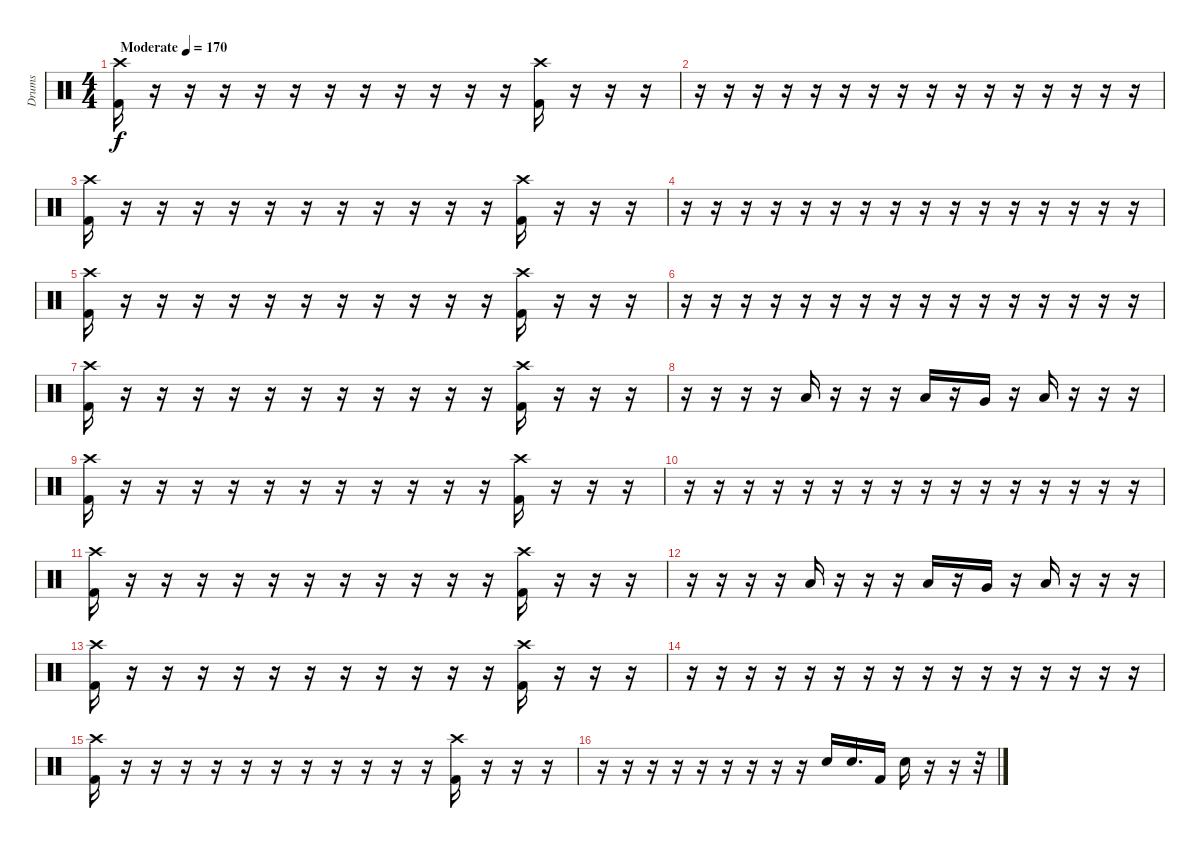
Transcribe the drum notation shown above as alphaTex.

\track ("Drums" "Drums") {instrument percussion}
\staff {score}
\articulation defaults
\ts (4 4)
\tempo (170 "Moderate")
\clef neutral
\ks c
("Crash high (hit)" "Kick (hit) 2").16{dy f} r.16 r.16 r.16 r.16 r.16 r.16 r.16 r.16 r.16 r.16 r.16 ("Crash high (hit)" "Kick (hit) 2").16 r.16 r.16 r.16 |
r.16 r.16 r.16 r.16 r.16 r.16 r.16 r.16 r.16 r.16 r.16 r.16 r.16 r.16 r.16 r.16 |
("Crash high (hit)" "Kick (hit) 2").16 r.16 r.16 r.16 r.16 r.16 r.16 r.16 r.16 r.16 r.16 r.16 ("Crash high (hit)" "Kick (hit) 2").16 r.16 r.16 r.16 |
r.16 r.16 r.16 r.16 r.16 r.16 r.16 r.16 r.16 r.16 r.16 r.16 r.16 r.16 r.16 r.16 |
("Crash high (hit)" "Kick (hit) 2").16 r.16 r.16 r.16 r.16 r.16 r.16 r.16 r.16 r.16 r.16 r.16 ("Crash high (hit)" "Kick (hit) 2").16 r.16 r.16 r.16 |
r.16 r.16 r.16 r.16 r.16 r.16 r.16 r.16 r.16 r.16 r.16 r.16 r.16 r.16 r.16 r.16 |
("Crash high (hit)" "Kick (hit) 2").16 r.16 r.16 r.16 r.16 r.16 r.16 r.16 r.16 r.16 r.16 r.16 ("Crash high (hit)" "Kick (hit) 2").16 r.16 r.16 r.16 |
r.16 r.16 r.16 r.16 "Low Tom (hit)".16 r.16 r.16 r.16 "Low Tom (hit)".16 r.16 "Very Low Tom (hit)".16 r.16 "Low Floor Tom (hit)".16 r.16 r.16 r.16 |
("Crash high (hit)" "Kick (hit) 2").16 r.16 r.16 r.16 r.16 r.16 r.16 r.16 r.16 r.16 r.16 r.16 ("Crash high (hit)" "Kick (hit) 2").16 r.16 r.16 r.16 |
r.16 r.16 r.16 r.16 r.16 r.16 r.16 r.16 r.16 r.16 r.16 r.16 r.16 r.16 r.16 r.16 |
("Crash high (hit)" "Kick (hit) 2").16 r.16 r.16 r.16 r.16 r.16 r.16 r.16 r.16 r.16 r.16 r.16 ("Crash high (hit)" "Kick (hit) 2").16 r.16 r.16 r.16 |
r.16 r.16 r.16 r.16 "Low Tom (hit)".16 r.16 r.16 r.16 "Low Tom (hit)".16 r.16 "Very Low Tom (hit)".16 r.16 "Low Floor Tom (hit)".16 r.16 r.16 r.16 |
("Crash high (hit)" "Kick (hit) 2").16 r.16 r.16 r.16 r.16 r.16 r.16 r.16 r.16 r.16 r.16 r.16 ("Crash high (hit)" "Kick (hit) 2").16 r.16 r.16 r.16 |
r.16 r.16 r.16 r.16 r.16 r.16 r.16 r.16 r.16 r.16 r.16 r.16 r.16 r.16 r.16 r.16 |
("Crash high (hit)" "Kick (hit) 2").16 r.16 r.16 r.16 r.16 r.16 r.16 r.16 r.16 r.16 r.16 r.16 ("Crash high (hit)" "Kick (hit) 2").16 r.16 r.16 r.16 |
r.16 r.16 r.16 r.16 r.16 r.16 r.16 r.16 r.16 "Snare (hit) 2".16 "Snare (hit) 2".16{d} "Kick (hit) 2".16 "Snare (hit) 2".16 r.16 r.16 r.32
